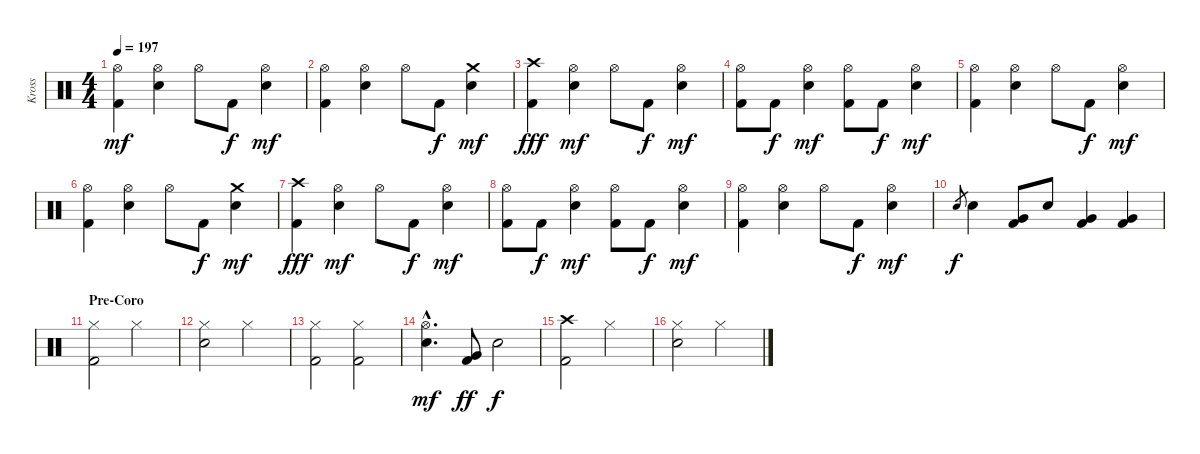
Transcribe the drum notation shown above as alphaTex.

\track ("Kross" "Kross") {instrument percussion}
\staff {score}
\articulation defaults
\ts (4 4)
\tempo 197
\clef neutral
\ks c
("Hi-Hat (open)" "Kick (hit) 2").4{dy mf} ("Hi-Hat (open)" "Electric Snare (hit)").4 "Hi-Hat (open)".8 "Kick (hit) 2".8{dy f} ("Hi-Hat (open)" "Electric Snare (hit)").4{dy mf} |
("Hi-Hat (open)" "Kick (hit) 2").4 ("Hi-Hat (open)" "Electric Snare (hit)").4 "Hi-Hat (open)".8 "Kick (hit) 2".8{dy f} ("Crash medium (hit)" "Electric Snare (hit)").4{dy mf} |
("Crash high (hit)" "Kick (hit) 2").4{dy fff} ("Hi-Hat (open)" "Electric Snare (hit)").4{dy mf} "Hi-Hat (open)".8 "Kick (hit) 2".8{dy f} ("Hi-Hat (open)" "Electric Snare (hit)").4{dy mf} |
("Hi-Hat (open)" "Kick (hit) 2").8 "Kick (hit) 2".8{dy f} ("Hi-Hat (open)" "Electric Snare (hit)").4{dy mf} ("Hi-Hat (open)" "Kick (hit) 2").8 "Kick (hit) 2".8{dy f} ("Hi-Hat (open)" "Electric Snare (hit)").4{dy mf} |
("Hi-Hat (open)" "Kick (hit) 2").4 ("Hi-Hat (open)" "Electric Snare (hit)").4 "Hi-Hat (open)".8 "Kick (hit) 2".8{dy f} ("Hi-Hat (open)" "Electric Snare (hit)").4{dy mf} |
("Hi-Hat (open)" "Kick (hit) 2").4 ("Hi-Hat (open)" "Electric Snare (hit)").4 "Hi-Hat (open)".8 "Kick (hit) 2".8{dy f} ("Crash medium (hit)" "Electric Snare (hit)").4{dy mf} |
("Crash high (hit)" "Kick (hit) 2").4{dy fff} ("Hi-Hat (open)" "Electric Snare (hit)").4{dy mf} "Hi-Hat (open)".8 "Kick (hit) 2".8{dy f} ("Hi-Hat (open)" "Electric Snare (hit)").4{dy mf} |
("Hi-Hat (open)" "Kick (hit) 2").8 "Kick (hit) 2".8{dy f} ("Hi-Hat (open)" "Electric Snare (hit)").4{dy mf} ("Hi-Hat (open)" "Kick (hit) 2").8 "Kick (hit) 2".8{dy f} ("Hi-Hat (open)" "Electric Snare (hit)").4{dy mf} |
("Hi-Hat (open)" "Kick (hit) 2").4 ("Hi-Hat (open)" "Electric Snare (hit)").4 "Hi-Hat (open)".8 "Kick (hit) 2".8{dy f} ("Hi-Hat (open)" "Electric Snare (hit)").4{dy mf} |
"Electric Snare (hit)".8{gr dy f} "Electric Snare (hit)".4 ("Very Low Tom (hit)" "Kick (hit) 2").8 "Electric Snare (hit)".8 ("Very Low Tom (hit)" "Kick (hit) 2").4 ("Very Low Tom (hit)" "Kick (hit) 2").4 |
\section ("" "Pre-Coro")
("Hi-Hat (closed)" "Kick (hit) 2").2 "Hi-Hat (closed)".2 |
("Hi-Hat (closed)" "Electric Snare (hit)").2 "Hi-Hat (closed)".2 |
("Hi-Hat (closed)" "Kick (hit) 2").2 ("Hi-Hat (closed)" "Kick (hit) 2").2 |
("Hi-Hat (open)"{hac} "Electric Snare (hit)"{hac}).4{d dy mf} ("Very Low Tom (hit)" "Kick (hit) 2").8{dy ff} "Electric Snare (hit)".2{dy f} |
("Crash high (hit)" "Kick (hit) 2").2 "Hi-Hat (closed)".2 |
("Hi-Hat (closed)" "Electric Snare (hit)").2 "Hi-Hat (closed)".2
